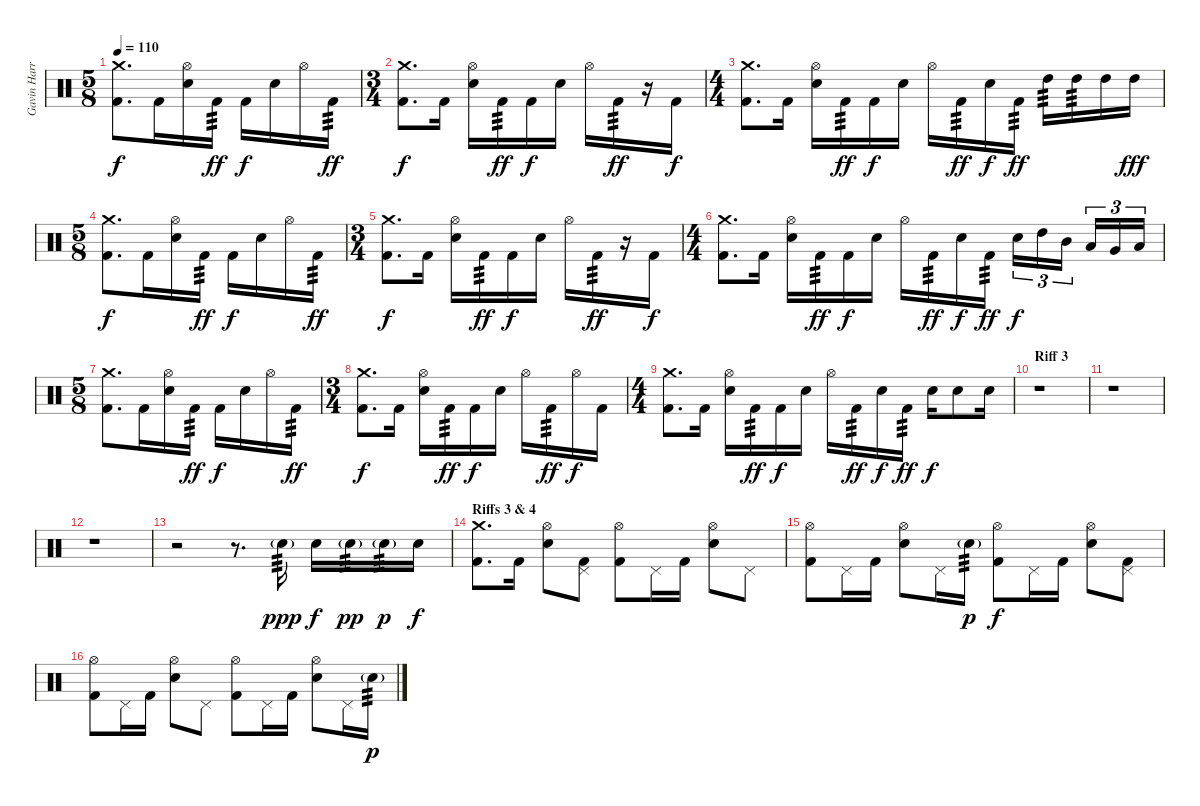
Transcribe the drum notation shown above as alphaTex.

\track ("Gavin Harrison - Drums" "Gavin Harr") {instrument percussion}
\staff {score}
\articulation defaults
\ts (5 8)
\tempo 110
\clef neutral
\ks c
("Crash medium (hit)" "Kick (hit) 2").8{d dy f} "Kick (hit) 2".16 ("Hi-Hat (open)" "Electric Snare (hit)").16 "Kick (hit) 2".16{tp 3 dy ff} "Kick (hit) 2".16{dy f} "Electric Snare (hit)".16 "Hi-Hat (open)".16 "Kick (hit) 2".16{tp 3 dy ff} |
\ts (3 4)
("Crash medium (hit)" "Kick (hit) 2").8{d dy f} "Kick (hit) 2".16 ("Hi-Hat (open)" "Electric Snare (hit)").16 "Kick (hit) 2".16{tp 3 dy ff} "Kick (hit) 2".16{dy f} "Electric Snare (hit)".16 "Hi-Hat (open)".16 "Kick (hit) 2".16{tp 3 dy ff} r.16 "Kick (hit) 2".16{dy f} |
\ts (4 4)
("Crash medium (hit)" "Kick (hit) 2").8{d} "Kick (hit) 2".16 ("Hi-Hat (open)" "Electric Snare (hit)").16 "Kick (hit) 2".16{tp 3 dy ff} "Kick (hit) 2".16{dy f} "Electric Snare (hit)".16 "Hi-Hat (open)".16 "Kick (hit) 2".16{tp 3 dy ff} "Electric Snare (hit)".16{dy f} "Kick (hit) 2".16{tp 3 dy ff} "High Tom (hit)".16{tp 3} "High Tom (hit)".16{tp 3} "High Tom (hit)".16 "High Tom (hit)".16{dy fff} |
\ts (5 8)
("Crash medium (hit)" "Kick (hit) 2").8{d dy f} "Kick (hit) 2".16 ("Hi-Hat (open)" "Electric Snare (hit)").16 "Kick (hit) 2".16{tp 3 dy ff} "Kick (hit) 2".16{dy f} "Electric Snare (hit)".16 "Hi-Hat (open)".16 "Kick (hit) 2".16{tp 3 dy ff} |
\ts (3 4)
("Crash medium (hit)" "Kick (hit) 2").8{d dy f} "Kick (hit) 2".16 ("Hi-Hat (open)" "Electric Snare (hit)").16 "Kick (hit) 2".16{tp 3 dy ff} "Kick (hit) 2".16{dy f} "Electric Snare (hit)".16 "Hi-Hat (open)".16 "Kick (hit) 2".16{tp 3 dy ff} r.16 "Kick (hit) 2".16{dy f} |
\ts (4 4)
("Crash medium (hit)" "Kick (hit) 2").8{d} "Kick (hit) 2".16 ("Hi-Hat (open)" "Electric Snare (hit)").16 "Kick (hit) 2".16{tp 3 dy ff} "Kick (hit) 2".16{dy f} "Electric Snare (hit)".16 "Hi-Hat (open)".16 "Kick (hit) 2".16{tp 3 dy ff} "Electric Snare (hit)".16{dy f} "Kick (hit) 2".16{tp 3 dy ff} "Electric Snare (hit)".16{tu (3 2) dy f} "High Tom (hit)".16{tu (3 2)} "Mid Tom (hit)".16{tu (3 2)} "Low Tom (hit)".16{tu (3 2)} "Very Low Tom (hit)".16{tu (3 2)} "Low Floor Tom (hit)".16{tu (3 2)} |
\ts (5 8)
("Crash medium (hit)" "Kick (hit) 2").8{d} "Kick (hit) 2".16 ("Hi-Hat (open)" "Electric Snare (hit)").16 "Kick (hit) 2".16{tp 3 dy ff} "Kick (hit) 2".16{dy f} "Electric Snare (hit)".16 "Hi-Hat (open)".16 "Kick (hit) 2".16{tp 3 dy ff} |
\ts (3 4)
("Crash medium (hit)" "Kick (hit) 2").8{d dy f} "Kick (hit) 2".16 ("Hi-Hat (open)" "Electric Snare (hit)").16 "Kick (hit) 2".16{tp 3 dy ff} "Kick (hit) 2".16{dy f} "Electric Snare (hit)".16 "Hi-Hat (open)".16 "Kick (hit) 2".16{tp 3 dy ff} "Hi-Hat (open)".16{dy f} "Kick (hit) 2".16 |
\ts (4 4)
("Crash medium (hit)" "Kick (hit) 2").8{d} "Kick (hit) 2".16 ("Hi-Hat (open)" "Electric Snare (hit)").16 "Kick (hit) 2".16{tp 3 dy ff} "Kick (hit) 2".16{dy f} "Electric Snare (hit)".16 "Hi-Hat (open)".16 "Kick (hit) 2".16{tp 3 dy ff} "Electric Snare (hit)".16{dy f} "Kick (hit) 2".16{tp 3 dy ff} "Electric Snare (hit)".16{dy f} "Electric Snare (hit)".8 "Electric Snare (hit)".16 |
\section ("" "Riff 3")
r.1 |
r.1 |
r.1 |
r.2 r.8{d} "Electric Snare (hit)"{g}.16{tp 3 dy ppp} "Electric Snare (hit)".16{dy f} "Electric Snare (hit)"{g}.16{tp 3 dy pp} "Electric Snare (hit)"{g}.16{tp 3 dy p} "Electric Snare (hit)".16{dy f} |
\section ("" "Riffs 3 & 4")
("Crash medium (hit)" "Kick (hit) 2").8{d} "Kick (hit) 2".16 ("Hi-Hat (open)" "Electric Snare (hit)").8 ("Pedal Hi-Hat (hit)" "Kick (hit) 2").8 ("Hi-Hat (open)" "Kick (hit) 2").8 "Pedal Hi-Hat (hit)".16 "Kick (hit) 2".16 ("Hi-Hat (open)" "Electric Snare (hit)").8 "Pedal Hi-Hat (hit)".8 |
("Hi-Hat (open)" "Kick (hit) 2").8 "Pedal Hi-Hat (hit)".16 "Kick (hit) 2".16 ("Hi-Hat (open)" "Electric Snare (hit)").8 "Pedal Hi-Hat (hit)".16 "Electric Snare (hit)"{g}.16{tp 3 dy p} ("Hi-Hat (open)" "Kick (hit) 2").8{dy f} "Pedal Hi-Hat (hit)".16 "Kick (hit) 2".16 ("Hi-Hat (open)" "Electric Snare (hit)").8 ("Pedal Hi-Hat (hit)" "Kick (hit) 2").8 |
("Hi-Hat (open)" "Kick (hit) 2").8 "Pedal Hi-Hat (hit)".16 "Kick (hit) 2".16 ("Hi-Hat (open)" "Electric Snare (hit)").8 "Pedal Hi-Hat (hit)".8 ("Hi-Hat (open)" "Kick (hit) 2").8 "Pedal Hi-Hat (hit)".16 "Kick (hit) 2".16 ("Hi-Hat (open)" "Electric Snare (hit)").8 "Pedal Hi-Hat (hit)".16 "Electric Snare (hit)"{g}.16{tp 3 dy p}
